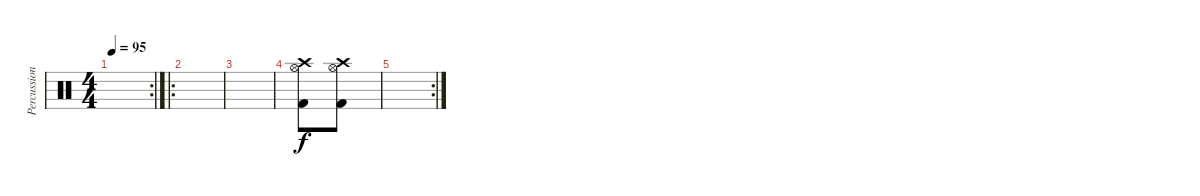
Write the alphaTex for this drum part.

\track ("Percussion" "Percussion") {instrument percussion}
\staff {score}
\articulation defaults
\rc 2
\ts (4 4)
\tempo 95
\clef neutral
\ks c
|
\ro
|
|
("Crash high (hit)" "Hi-Hat (open)" "Kick (hit) 2").8 ("Crash high (hit)" "Hi-Hat (open)" "Kick (hit) 2").8 |
\rc 2
